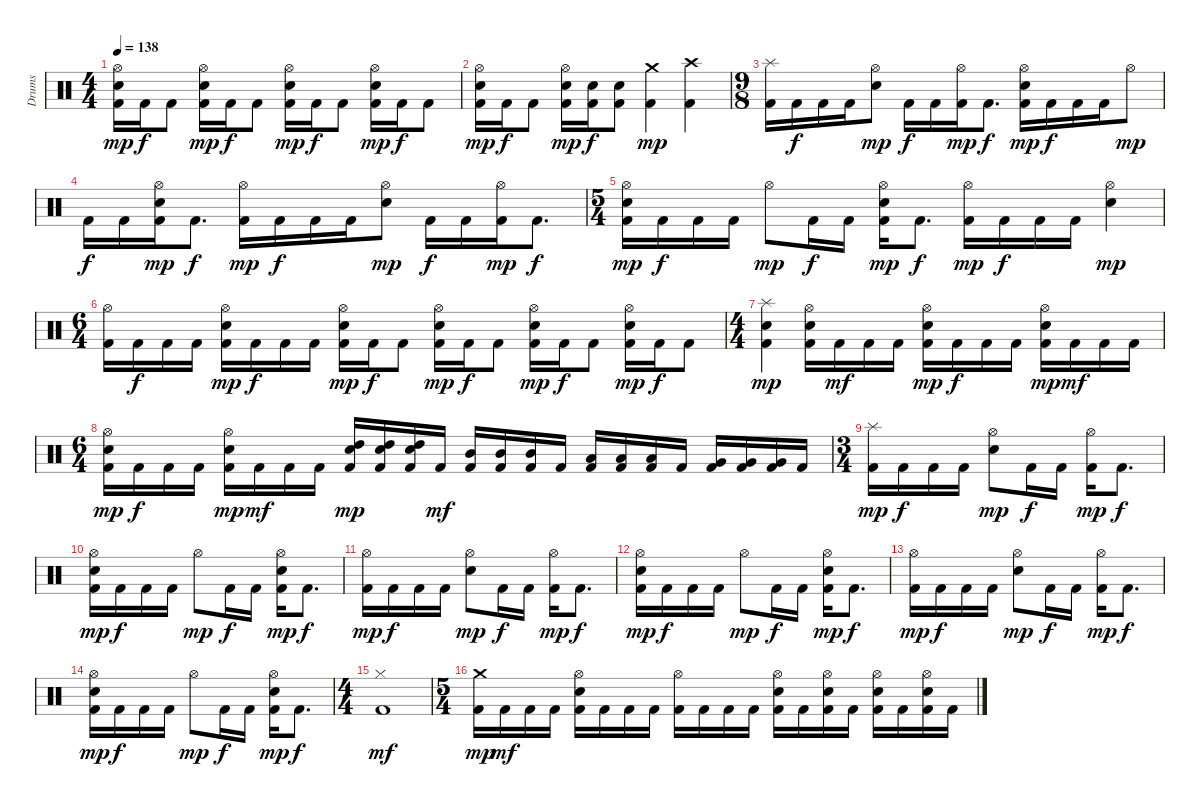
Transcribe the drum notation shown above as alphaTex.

\track ("Drums" "Drums") {instrument percussion}
\staff {score}
\articulation defaults
\ts (4 4)
\tempo 138
\clef neutral
\ks c
("Kick (hit) 2" "Electric Snare (hit)" "Hi-Hat (open)").16{dy mp} "Kick (hit) 2".16{dy f} "Kick (hit) 2".8 ("Kick (hit) 2" "Electric Snare (hit)" "Hi-Hat (open)").16{dy mp} "Kick (hit) 2".16{dy f} "Kick (hit) 2".8 ("Kick (hit) 2" "Electric Snare (hit)" "Hi-Hat (open)").16{dy mp} "Kick (hit) 2".16{dy f} "Kick (hit) 2".8 ("Kick (hit) 2" "Electric Snare (hit)" "Hi-Hat (open)").16{dy mp} "Kick (hit) 2".16{dy f} "Kick (hit) 2".8 |
("Kick (hit) 2" "Electric Snare (hit)" "Hi-Hat (open)").16{dy mp} "Kick (hit) 2".16{dy f} "Kick (hit) 2".8 ("Kick (hit) 2" "Electric Snare (hit)" "Hi-Hat (open)").16{dy mp} ("Kick (hit) 2" "Electric Snare (hit)").16{dy f} ("Kick (hit) 2" "Electric Snare (hit)").8 ("Kick (hit) 2" "Crash medium (hit)").4{dy mp} ("Kick (hit) 2" "Crash high (hit)").4 |
\ts (9 8)
("Kick (hit) 2" "Splash (hit)").16 "Kick (hit) 2".16{dy f} "Kick (hit) 2".16 "Kick (hit) 2".16 ("Electric Snare (hit)" "Hi-Hat (open)").8{dy mp} "Kick (hit) 2".16{dy f} "Kick (hit) 2".16 ("Kick (hit) 2" "Hi-Hat (open)").16{dy mp} "Kick (hit) 2".8{d dy f} ("Kick (hit) 2" "Electric Snare (hit)" "Hi-Hat (open)").16{dy mp} "Kick (hit) 2".16{dy f} "Kick (hit) 2".16 "Kick (hit) 2".16 "Hi-Hat (open)".8{dy mp} |
"Kick (hit) 2".16{dy f} "Kick (hit) 2".16 ("Kick (hit) 2" "Electric Snare (hit)" "Hi-Hat (open)").16{dy mp} "Kick (hit) 2".8{d dy f} ("Kick (hit) 2" "Hi-Hat (open)").16{dy mp} "Kick (hit) 2".16{dy f} "Kick (hit) 2".16 "Kick (hit) 2".16 ("Electric Snare (hit)" "Hi-Hat (open)").8{dy mp} "Kick (hit) 2".16{dy f} "Kick (hit) 2".16 ("Kick (hit) 2" "Hi-Hat (open)").16{dy mp} "Kick (hit) 2".8{d dy f} |
\ts (5 4)
("Kick (hit) 2" "Electric Snare (hit)" "Hi-Hat (open)").16{dy mp} "Kick (hit) 2".16{dy f} "Kick (hit) 2".16 "Kick (hit) 2".16 "Hi-Hat (open)".8{dy mp} "Kick (hit) 2".16{dy f} "Kick (hit) 2".16 ("Kick (hit) 2" "Electric Snare (hit)" "Hi-Hat (open)").16{dy mp} "Kick (hit) 2".8{d dy f} ("Kick (hit) 2" "Hi-Hat (open)").16{dy mp} "Kick (hit) 2".16{dy f} "Kick (hit) 2".16 "Kick (hit) 2".16 ("Electric Snare (hit)" "Hi-Hat (open)").4{dy mp} |
\ts (6 4)
("Kick (hit) 2" "Hi-Hat (open)").16 "Kick (hit) 2".16{dy f} "Kick (hit) 2".16 "Kick (hit) 2".16 ("Kick (hit) 2" "Electric Snare (hit)" "Hi-Hat (open)").16{dy mp} "Kick (hit) 2".16{dy f} "Kick (hit) 2".16 "Kick (hit) 2".16 ("Kick (hit) 2" "Electric Snare (hit)" "Hi-Hat (open)").16{dy mp} "Kick (hit) 2".16{dy f} "Kick (hit) 2".8 ("Kick (hit) 2" "Electric Snare (hit)" "Hi-Hat (open)").16{dy mp} "Kick (hit) 2".16{dy f} "Kick (hit) 2".8 ("Kick (hit) 2" "Electric Snare (hit)" "Hi-Hat (open)").16{dy mp} "Kick (hit) 2".16{dy f} "Kick (hit) 2".8 ("Kick (hit) 2" "Electric Snare (hit)" "Hi-Hat (open)").16{dy mp} "Kick (hit) 2".16{dy f} "Kick (hit) 2".8 |
\ts (4 4)
("Kick (hit) 2" "Electric Snare (hit)" "Splash (hit)").4{dy mp} ("Kick (hit) 2" "Electric Snare (hit)" "Hi-Hat (open)").16 "Kick (hit) 2".16{dy mf} "Kick (hit) 2".16 "Kick (hit) 2".16 ("Kick (hit) 2" "Electric Snare (hit)" "Hi-Hat (open)").16{dy mp} "Kick (hit) 2".16{dy f} "Kick (hit) 2".16 "Kick (hit) 2".16 ("Kick (hit) 2" "Electric Snare (hit)" "Hi-Hat (open)").16{dy mp} "Kick (hit) 2".16{dy mf} "Kick (hit) 2".16 "Kick (hit) 2".16 |
\ts (6 4)
("Kick (hit) 2" "Electric Snare (hit)" "Hi-Hat (open)").16{dy mp} "Kick (hit) 2".16{dy f} "Kick (hit) 2".16 "Kick (hit) 2".16 ("Kick (hit) 2" "Electric Snare (hit)" "Hi-Hat (open)").16{dy mp} "Kick (hit) 2".16{dy mf} "Kick (hit) 2".16 "Kick (hit) 2".16 ("Kick (hit) 2" "Electric Snare (hit)" "High Tom (hit)").16{dy mp} ("Kick (hit) 2" "Electric Snare (hit)" "High Tom (hit)").16 ("Kick (hit) 2" "Electric Snare (hit)" "High Tom (hit)").16 "Kick (hit) 2".16{dy mf} ("Kick (hit) 2" "Mid Tom (hit)").16 ("Kick (hit) 2" "Mid Tom (hit)").16 ("Kick (hit) 2" "Mid Tom (hit)").16 "Kick (hit) 2".16 ("Kick (hit) 2" "Low Tom (hit)").16 ("Kick (hit) 2" "Low Tom (hit)").16 ("Kick (hit) 2" "Low Tom (hit)").16 "Kick (hit) 2".16 ("Kick (hit) 2" "Very Low Tom (hit)").16 ("Kick (hit) 2" "Very Low Tom (hit)").16 ("Kick (hit) 2" "Very Low Tom (hit)").16 "Kick (hit) 2".16 |
\ts (3 4)
("Kick (hit) 2" "Splash (hit)").16{dy mp} "Kick (hit) 2".16{dy f} "Kick (hit) 2".16 "Kick (hit) 2".16 ("Electric Snare (hit)" "Hi-Hat (open)").8{dy mp} "Kick (hit) 2".16{dy f} "Kick (hit) 2".16 ("Kick (hit) 2" "Hi-Hat (open)").16{dy mp} "Kick (hit) 2".8{d dy f} |
("Kick (hit) 2" "Electric Snare (hit)" "Hi-Hat (open)").16{dy mp} "Kick (hit) 2".16{dy f} "Kick (hit) 2".16 "Kick (hit) 2".16 "Hi-Hat (open)".8{dy mp} "Kick (hit) 2".16{dy f} "Kick (hit) 2".16 ("Kick (hit) 2" "Electric Snare (hit)" "Hi-Hat (open)").16{dy mp} "Kick (hit) 2".8{d dy f} |
("Kick (hit) 2" "Hi-Hat (open)").16{dy mp} "Kick (hit) 2".16{dy f} "Kick (hit) 2".16 "Kick (hit) 2".16 ("Electric Snare (hit)" "Hi-Hat (open)").8{dy mp} "Kick (hit) 2".16{dy f} "Kick (hit) 2".16 ("Kick (hit) 2" "Hi-Hat (open)").16{dy mp} "Kick (hit) 2".8{d dy f} |
("Kick (hit) 2" "Electric Snare (hit)" "Hi-Hat (open)").16{dy mp} "Kick (hit) 2".16{dy f} "Kick (hit) 2".16 "Kick (hit) 2".16 "Hi-Hat (open)".8{dy mp} "Kick (hit) 2".16{dy f} "Kick (hit) 2".16 ("Kick (hit) 2" "Electric Snare (hit)" "Hi-Hat (open)").16{dy mp} "Kick (hit) 2".8{d dy f} |
("Kick (hit) 2" "Hi-Hat (open)").16{dy mp} "Kick (hit) 2".16{dy f} "Kick (hit) 2".16 "Kick (hit) 2".16 ("Electric Snare (hit)" "Hi-Hat (open)").8{dy mp} "Kick (hit) 2".16{dy f} "Kick (hit) 2".16 ("Kick (hit) 2" "Hi-Hat (open)").16{dy mp} "Kick (hit) 2".8{d dy f} |
("Kick (hit) 2" "Electric Snare (hit)" "Hi-Hat (open)").16{dy mp} "Kick (hit) 2".16{dy f} "Kick (hit) 2".16 "Kick (hit) 2".16 "Hi-Hat (open)".8{dy mp} "Kick (hit) 2".16{dy f} "Kick (hit) 2".16 ("Kick (hit) 2" "Electric Snare (hit)" "Hi-Hat (open)").16{dy mp} "Kick (hit) 2".8{d dy f} |
\ts (4 4)
("Kick (hit) 2" "Hi-Hat (closed)").1{dy mf} |
\ts (5 4)
("Kick (hit) 2" "Crash medium (hit)").16{dy mp} "Kick (hit) 2".16{dy mf} "Kick (hit) 2".16 "Kick (hit) 2".16 ("Kick (hit) 2" "Electric Snare (hit)" "Hi-Hat (open)").16 "Kick (hit) 2".16 "Kick (hit) 2".16 "Kick (hit) 2".16 ("Kick (hit) 2" "Hi-Hat (open)").16 "Kick (hit) 2".16 "Kick (hit) 2".16 "Kick (hit) 2".16 ("Kick (hit) 2" "Electric Snare (hit)" "Hi-Hat (open)").16 "Kick (hit) 2".16 ("Kick (hit) 2" "Electric Snare (hit)" "Hi-Hat (open)").16 "Kick (hit) 2".16 ("Kick (hit) 2" "Electric Snare (hit)" "Hi-Hat (open)").16 "Kick (hit) 2".16 ("Kick (hit) 2" "Electric Snare (hit)" "Hi-Hat (open)").16 "Kick (hit) 2".16
